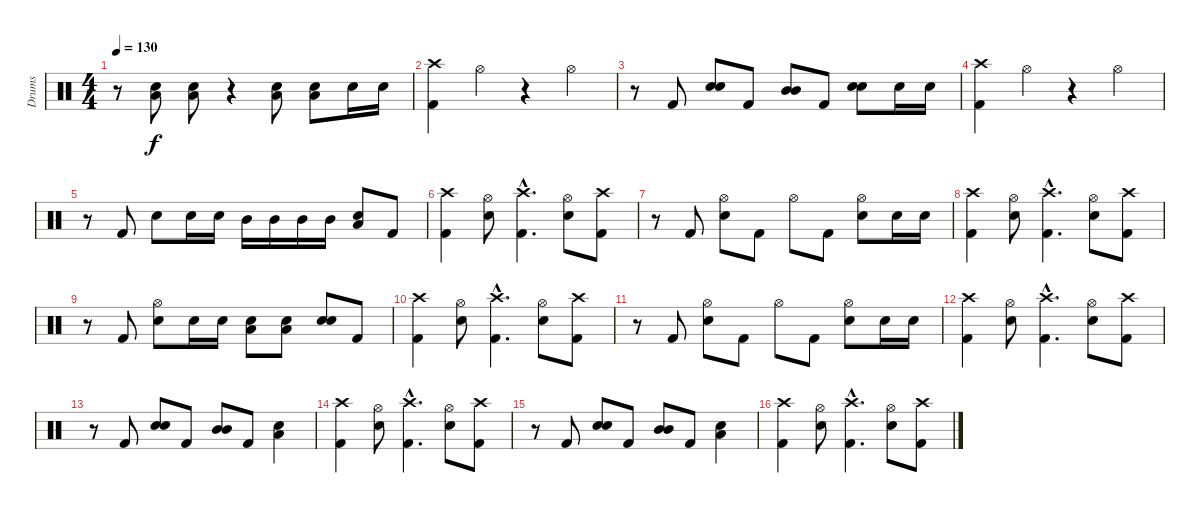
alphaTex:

\track ("Drums" "Drums") {instrument percussion}
\staff {score}
\articulation defaults
\ts (4 4)
\tempo 130
\clef neutral
\ks c
r.8{dy f} ("Low Floor Tom (hit)" "Snare (hit) 2").8 ("Low Floor Tom (hit)" "Snare (hit) 2").8 r.4 ("Low Floor Tom (hit)" "Snare (hit) 2").8 ("Low Floor Tom (hit)" "Snare (hit) 2").8 "Snare (hit) 2".16 "Snare (hit) 2".16 |
("Crash high (hit)" "Kick (hit) 2").4 "Hi-Hat (open)".4 r.4 "Hi-Hat (open)".4 |
r.8 "Kick (hit) 2".8 ("Snare (hit) 2" "Snare (hit) 2").8{bd 240} "Kick (hit) 2".8 ("Mid Tom (hit)" "Mid Tom (hit)").8{bd 240} "Kick (hit) 2".8 ("Snare (hit) 2" "Snare (hit) 2").8{bd 240} "Snare (hit) 2".16 "Snare (hit) 2".16 |
("Crash high (hit)" "Kick (hit) 2").4 "Hi-Hat (open)".4 r.4 "Hi-Hat (open)".4 |
r.8 "Kick (hit) 2".8 "Snare (hit) 2".8 "Snare (hit) 2".16 "Snare (hit) 2".16 "Mid Tom (hit)".16 "Mid Tom (hit)".16 "Mid Tom (hit)".16 "Mid Tom (hit)".16 ("Low Floor Tom (hit)" "Snare (hit) 2").8 "Kick (hit) 2".8 |
("Crash high (hit)" "Kick (hit) 2").4 ("Hi-Hat (open)" "Snare (hit) 2").8 ("Crash high (hit)"{hac} "Kick (hit) 2"{hac}).4{d} ("Hi-Hat (open)" "Snare (hit) 2").8 ("Crash high (hit)" "Kick (hit) 2").8 |
r.8 "Kick (hit) 2".8 ("Hi-Hat (open)" "Snare (hit) 2").8 "Kick (hit) 2".8 "Hi-Hat (open)".8 "Kick (hit) 2".8 ("Hi-Hat (open)" "Snare (hit) 2").8 "Snare (hit) 2".16 "Snare (hit) 2".16 |
("Crash high (hit)" "Kick (hit) 2").4 ("Hi-Hat (open)" "Snare (hit) 2").8 ("Crash high (hit)"{hac} "Kick (hit) 2"{hac}).4{d} ("Hi-Hat (open)" "Snare (hit) 2").8 ("Crash high (hit)" "Kick (hit) 2").8 |
r.8 "Kick (hit) 2".8 ("Hi-Hat (open)" "Snare (hit) 2").8 "Snare (hit) 2".16 "Snare (hit) 2".16 ("Low Floor Tom (hit)" "Snare (hit) 2").8 ("Low Floor Tom (hit)" "Snare (hit) 2").8 ("Snare (hit) 2" "Snare (hit) 2").8{bd 240} "Kick (hit) 2".8 |
("Crash high (hit)" "Kick (hit) 2").4 ("Hi-Hat (open)" "Snare (hit) 2").8 ("Crash high (hit)"{hac} "Kick (hit) 2"{hac}).4{d} ("Hi-Hat (open)" "Snare (hit) 2").8 ("Crash high (hit)" "Kick (hit) 2").8 |
r.8 "Kick (hit) 2".8 ("Hi-Hat (open)" "Snare (hit) 2").8 "Kick (hit) 2".8 "Hi-Hat (open)".8 "Kick (hit) 2".8 ("Hi-Hat (open)" "Snare (hit) 2").8 "Snare (hit) 2".16 "Snare (hit) 2".16 |
("Crash high (hit)" "Kick (hit) 2").4 ("Hi-Hat (open)" "Snare (hit) 2").8 ("Crash high (hit)"{hac} "Kick (hit) 2"{hac}).4{d} ("Hi-Hat (open)" "Snare (hit) 2").8 ("Crash high (hit)" "Kick (hit) 2").8 |
r.8 "Kick (hit) 2".8 ("Snare (hit) 2" "Snare (hit) 2").8{bd 240} "Kick (hit) 2".8 ("Mid Tom (hit)" "Mid Tom (hit)").8{bd 240} "Kick (hit) 2".8 ("Low Floor Tom (hit)" "Snare (hit) 2").4 |
("Crash high (hit)" "Kick (hit) 2").4 ("Hi-Hat (open)" "Snare (hit) 2").8 ("Crash high (hit)"{hac} "Kick (hit) 2"{hac}).4{d} ("Hi-Hat (open)" "Snare (hit) 2").8 ("Crash high (hit)" "Kick (hit) 2").8 |
r.8 "Kick (hit) 2".8 ("Snare (hit) 2" "Snare (hit) 2").8{bd 240} "Kick (hit) 2".8 ("Mid Tom (hit)" "Mid Tom (hit)").8{bd 240} "Kick (hit) 2".8 ("Low Floor Tom (hit)" "Snare (hit) 2").4 |
("Crash high (hit)" "Kick (hit) 2").4 ("Hi-Hat (open)" "Snare (hit) 2").8 ("Crash high (hit)"{hac} "Kick (hit) 2"{hac}).4{d} ("Hi-Hat (open)" "Snare (hit) 2").8 ("Crash high (hit)" "Kick (hit) 2").8
